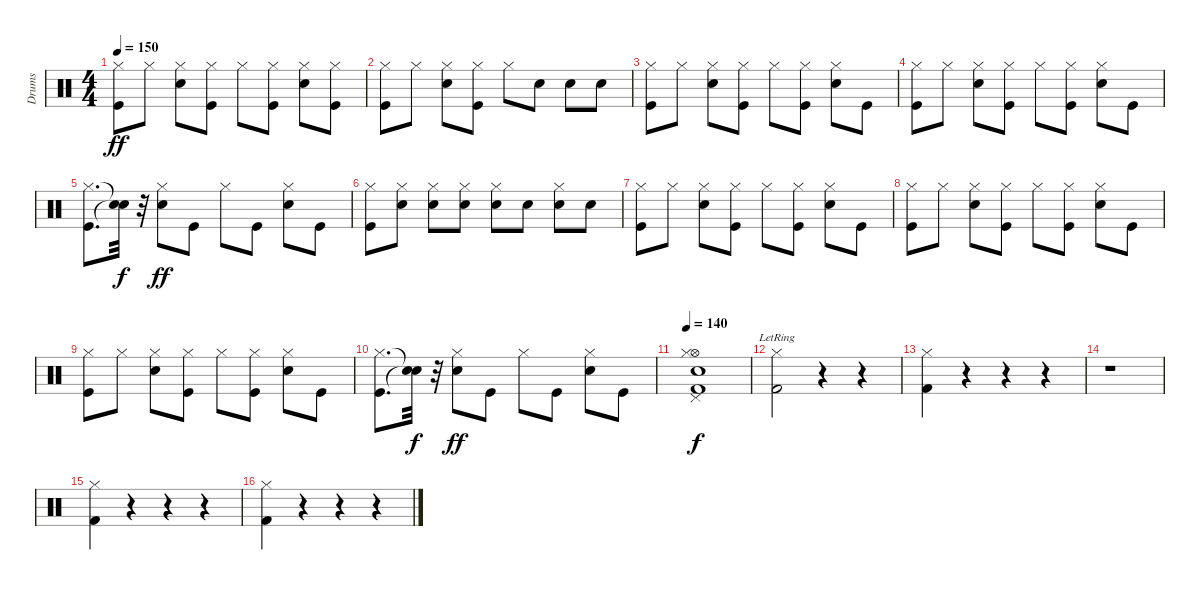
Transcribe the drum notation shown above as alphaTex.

\track ("Drums" "Drums") {instrument percussion}
\staff {score}
\articulation defaults
\ts (4 4)
\tempo 150
\clef neutral
\ks c
("Kick (hit)" "Hi-Hat (closed)").8{dy ff} "Hi-Hat (closed)".8 ("Snare (hit) 2" "Hi-Hat (closed)").8 ("Kick (hit)" "Hi-Hat (closed)").8 "Hi-Hat (closed)".8 ("Kick (hit)" "Hi-Hat (closed)").8 ("Snare (hit) 2" "Hi-Hat (closed)").8 ("Kick (hit)" "Hi-Hat (closed)").8 |
("Kick (hit)" "Hi-Hat (closed)").8 "Hi-Hat (closed)".8 ("Snare (hit) 2" "Hi-Hat (closed)").8 ("Kick (hit)" "Hi-Hat (closed)").8 "Hi-Hat (closed)".8 "Snare (hit) 2".8 "Snare (hit) 2".8 "Snare (hit) 2".8 |
("Kick (hit)" "Hi-Hat (closed)").8 "Hi-Hat (closed)".8 ("Snare (hit) 2" "Hi-Hat (closed)").8 ("Kick (hit)" "Hi-Hat (closed)").8 "Hi-Hat (closed)".8 ("Kick (hit)" "Hi-Hat (closed)").8 ("Snare (hit) 2" "Hi-Hat (closed)").8 "Kick (hit)".8 |
("Kick (hit)" "Hi-Hat (closed)").8 "Hi-Hat (closed)".8 ("Snare (hit) 2" "Hi-Hat (closed)").8 ("Kick (hit)" "Hi-Hat (closed)").8 "Hi-Hat (closed)".8 ("Kick (hit)" "Hi-Hat (closed)").8 ("Snare (hit) 2" "Hi-Hat (closed)").8 "Kick (hit)".8 |
("Kick (hit)" "Hi-Hat (closed)").8{d} ("Snare (hit)"{t} "Snare (hit)"{t}).32{dy f} r.32 ("Snare (hit) 2" "Hi-Hat (closed)").8{dy ff} "Kick (hit)".8 "Hi-Hat (closed)".8 "Kick (hit)".8 ("Snare (hit) 2" "Hi-Hat (closed)").8 "Kick (hit)".8 |
("Kick (hit)" "Hi-Hat (closed)").8 ("Snare (hit) 2" "Hi-Hat (closed)").8 ("Snare (hit) 2" "Hi-Hat (closed)").8 ("Snare (hit) 2" "Hi-Hat (closed)").8 ("Snare (hit) 2" "Hi-Hat (closed)").8 "Snare (hit) 2".8 ("Snare (hit) 2" "Hi-Hat (closed)").8 "Snare (hit) 2".8 |
("Kick (hit)" "Hi-Hat (closed)").8 "Hi-Hat (closed)".8 ("Snare (hit) 2" "Hi-Hat (closed)").8 ("Kick (hit)" "Hi-Hat (closed)").8 "Hi-Hat (closed)".8 ("Kick (hit)" "Hi-Hat (closed)").8 ("Snare (hit) 2" "Hi-Hat (closed)").8 "Kick (hit)".8 |
("Kick (hit)" "Hi-Hat (closed)").8 "Hi-Hat (closed)".8 ("Snare (hit) 2" "Hi-Hat (closed)").8 ("Kick (hit)" "Hi-Hat (closed)").8 "Hi-Hat (closed)".8 ("Kick (hit)" "Hi-Hat (closed)").8 ("Snare (hit) 2" "Hi-Hat (closed)").8 "Kick (hit)".8 |
("Kick (hit)" "Hi-Hat (closed)").8 "Hi-Hat (closed)".8 ("Snare (hit) 2" "Hi-Hat (closed)").8 ("Kick (hit)" "Hi-Hat (closed)").8 "Hi-Hat (closed)".8 ("Kick (hit)" "Hi-Hat (closed)").8 ("Snare (hit) 2" "Hi-Hat (closed)").8 "Kick (hit)".8 |
("Kick (hit)" "Hi-Hat (closed)").8{d} ("Snare (hit)"{t} "Snare (hit)"{t}).32{dy f} r.32 ("Snare (hit) 2" "Hi-Hat (closed)").8{dy ff} "Kick (hit)".8 "Hi-Hat (closed)".8 "Kick (hit)".8 ("Snare (hit) 2" "Hi-Hat (closed)").8 "Kick (hit)".8 |
\tempo 140
("Snare (hit) 2" "Pedal Hi-Hat (hit)" "Hi-Hat (open)" "Kick (hit) 2" "Hi-Hat (closed)").1{dy f} |
("Kick (hit) 2"{lr} "Hi-Hat (closed)").2 r.4 r.4 |
("Kick (hit) 2" "Hi-Hat (closed)").4 r.4 r.4 r.4 |
r.1 |
("Kick (hit) 2" "Hi-Hat (closed)").4 r.4 r.4 r.4 |
("Kick (hit) 2" "Hi-Hat (closed)").4 r.4 r.4 r.4
